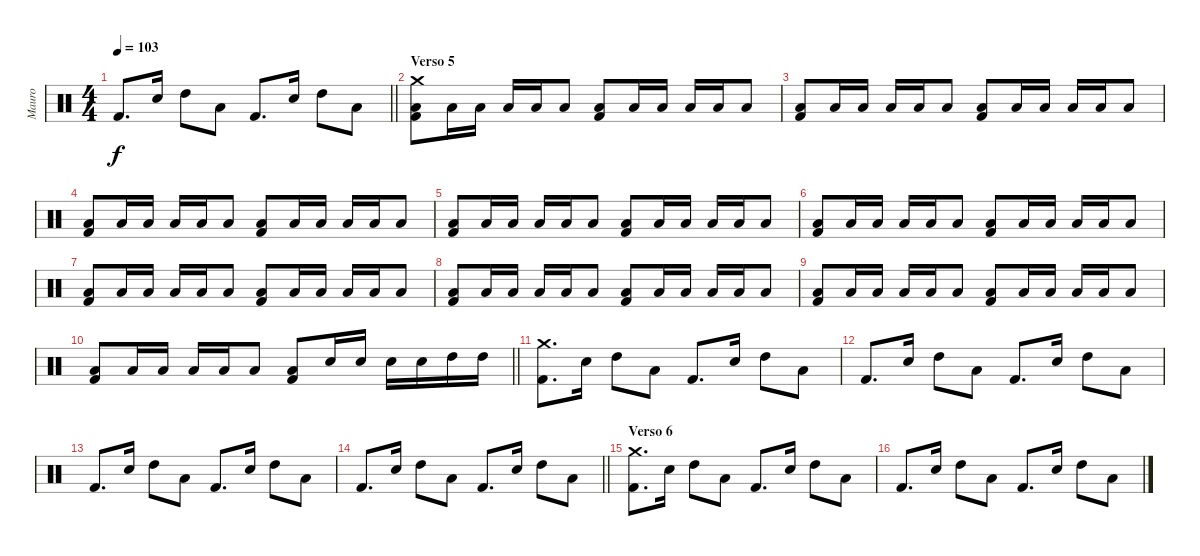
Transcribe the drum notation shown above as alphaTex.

\track ("Mauro" "Mauro") {instrument percussion}
\staff {score}
\articulation defaults
\ts (4 4)
\tempo 103
\clef neutral
\barLineRight lightlight
\ks c "Kick (hit) 2".8{d dy f} "Electric Snare (hit)".16 "High Tom (hit)".8 "Low Floor Tom (hit)".8 "Kick (hit) 2".8{d} "Electric Snare (hit)".16 "High Tom (hit)".8 "Low Floor Tom (hit)".8
|
\section ("" "Verso 5")
("Low Floor Tom (hit)" "Crash medium (hit)" "Kick (hit) 2").8 "Low Floor Tom (hit)".16 "Low Floor Tom (hit)".16 "Low Floor Tom (hit)".16 "Low Floor Tom (hit)".16 "Low Floor Tom (hit)".8 ("Low Floor Tom (hit)" "Kick (hit) 2").8 "Low Floor Tom (hit)".16 "Low Floor Tom (hit)".16 "Low Floor Tom (hit)".16 "Low Floor Tom (hit)".16 "Low Floor Tom (hit)".8 |
("Low Floor Tom (hit)" "Kick (hit) 2").8 "Low Floor Tom (hit)".16 "Low Floor Tom (hit)".16 "Low Floor Tom (hit)".16 "Low Floor Tom (hit)".16 "Low Floor Tom (hit)".8 ("Low Floor Tom (hit)" "Kick (hit) 2").8 "Low Floor Tom (hit)".16 "Low Floor Tom (hit)".16 "Low Floor Tom (hit)".16 "Low Floor Tom (hit)".16 "Low Floor Tom (hit)".8 |
("Low Floor Tom (hit)" "Kick (hit) 2").8 "Low Floor Tom (hit)".16 "Low Floor Tom (hit)".16 "Low Floor Tom (hit)".16 "Low Floor Tom (hit)".16 "Low Floor Tom (hit)".8 ("Low Floor Tom (hit)" "Kick (hit) 2").8 "Low Floor Tom (hit)".16 "Low Floor Tom (hit)".16 "Low Floor Tom (hit)".16 "Low Floor Tom (hit)".16 "Low Floor Tom (hit)".8 |
("Low Floor Tom (hit)" "Kick (hit) 2").8 "Low Floor Tom (hit)".16 "Low Floor Tom (hit)".16 "Low Floor Tom (hit)".16 "Low Floor Tom (hit)".16 "Low Floor Tom (hit)".8 ("Low Floor Tom (hit)" "Kick (hit) 2").8 "Low Floor Tom (hit)".16 "Low Floor Tom (hit)".16 "Low Floor Tom (hit)".16 "Low Floor Tom (hit)".16 "Low Floor Tom (hit)".8 |
("Low Floor Tom (hit)" "Kick (hit) 2").8 "Low Floor Tom (hit)".16 "Low Floor Tom (hit)".16 "Low Floor Tom (hit)".16 "Low Floor Tom (hit)".16 "Low Floor Tom (hit)".8 ("Low Floor Tom (hit)" "Kick (hit) 2").8 "Low Floor Tom (hit)".16 "Low Floor Tom (hit)".16 "Low Floor Tom (hit)".16 "Low Floor Tom (hit)".16 "Low Floor Tom (hit)".8 |
("Low Floor Tom (hit)" "Kick (hit) 2").8 "Low Floor Tom (hit)".16 "Low Floor Tom (hit)".16 "Low Floor Tom (hit)".16 "Low Floor Tom (hit)".16 "Low Floor Tom (hit)".8 ("Low Floor Tom (hit)" "Kick (hit) 2").8 "Low Floor Tom (hit)".16 "Low Floor Tom (hit)".16 "Low Floor Tom (hit)".16 "Low Floor Tom (hit)".16 "Low Floor Tom (hit)".8 |
("Low Floor Tom (hit)" "Kick (hit) 2").8 "Low Floor Tom (hit)".16 "Low Floor Tom (hit)".16 "Low Floor Tom (hit)".16 "Low Floor Tom (hit)".16 "Low Floor Tom (hit)".8 ("Low Floor Tom (hit)" "Kick (hit) 2").8 "Low Floor Tom (hit)".16 "Low Floor Tom (hit)".16 "Low Floor Tom (hit)".16 "Low Floor Tom (hit)".16 "Low Floor Tom (hit)".8 |
("Low Floor Tom (hit)" "Kick (hit) 2").8 "Low Floor Tom (hit)".16 "Low Floor Tom (hit)".16 "Low Floor Tom (hit)".16 "Low Floor Tom (hit)".16 "Low Floor Tom (hit)".8 ("Low Floor Tom (hit)" "Kick (hit) 2").8 "Low Floor Tom (hit)".16 "Low Floor Tom (hit)".16 "Low Floor Tom (hit)".16 "Low Floor Tom (hit)".16 "Low Floor Tom (hit)".8 |
\barLineRight lightlight
("Low Floor Tom (hit)" "Kick (hit) 2").8 "Low Floor Tom (hit)".16 "Low Floor Tom (hit)".16 "Low Floor Tom (hit)".16 "Low Floor Tom (hit)".16 "Low Floor Tom (hit)".8 ("Low Floor Tom (hit)" "Kick (hit) 2").8 "Electric Snare (hit)".16 "Electric Snare (hit)".16 "Electric Snare (hit)".16 "Electric Snare (hit)".16 "High Tom (hit)".16 "High Tom (hit)".16 |
\section ("" "")
("Kick (hit) 2" "Crash medium (hit)").8{d} "Electric Snare (hit)".16 "High Tom (hit)".8 "Low Floor Tom (hit)".8 "Kick (hit) 2".8{d} "Electric Snare (hit)".16 "High Tom (hit)".8 "Low Floor Tom (hit)".8 |
"Kick (hit) 2".8{d} "Electric Snare (hit)".16 "High Tom (hit)".8 "Low Floor Tom (hit)".8 "Kick (hit) 2".8{d} "Electric Snare (hit)".16 "High Tom (hit)".8 "Low Floor Tom (hit)".8 |
"Kick (hit) 2".8{d} "Electric Snare (hit)".16 "High Tom (hit)".8 "Low Floor Tom (hit)".8 "Kick (hit) 2".8{d} "Electric Snare (hit)".16 "High Tom (hit)".8 "Low Floor Tom (hit)".8 |
\barLineRight lightlight "Kick (hit) 2".8{d} "Electric Snare (hit)".16 "High Tom (hit)".8 "Low Floor Tom (hit)".8 "Kick (hit) 2".8{d} "Electric Snare (hit)".16 "High Tom (hit)".8 "Low Floor Tom (hit)".8
|
\section ("" "Verso 6")
("Kick (hit) 2" "Crash medium (hit)").8{d} "Electric Snare (hit)".16 "High Tom (hit)".8 "Low Floor Tom (hit)".8 "Kick (hit) 2".8{d} "Electric Snare (hit)".16 "High Tom (hit)".8 "Low Floor Tom (hit)".8 |
"Kick (hit) 2".8{d} "Electric Snare (hit)".16 "High Tom (hit)".8 "Low Floor Tom (hit)".8 "Kick (hit) 2".8{d} "Electric Snare (hit)".16 "High Tom (hit)".8 "Low Floor Tom (hit)".8
